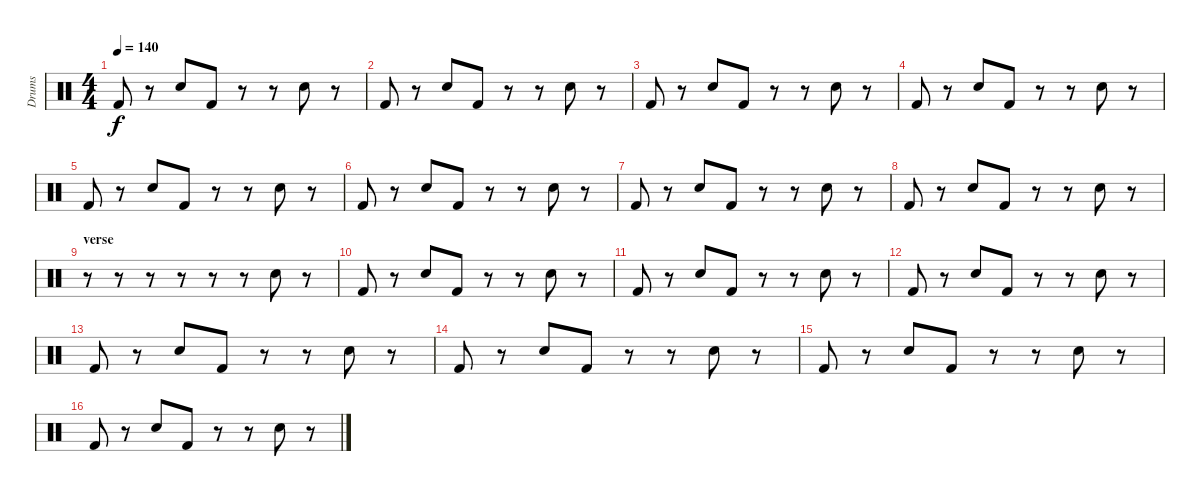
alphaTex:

\track ("Drums" "Drums") {instrument percussion}
\staff {score}
\articulation defaults
\ts (4 4)
\tempo 140
\clef neutral
\ks c "Kick (hit) 2".8{dy f}
r.8 "Electric Snare (hit)".8 "Kick (hit) 2".8 r.8 r.8 "Electric Snare (hit)".8 r.8 |
"Kick (hit) 2".8 r.8 "Electric Snare (hit)".8 "Kick (hit) 2".8 r.8 r.8 "Electric Snare (hit)".8 r.8 |
"Kick (hit) 2".8 r.8 "Electric Snare (hit)".8 "Kick (hit) 2".8 r.8 r.8 "Electric Snare (hit)".8 r.8 |
"Kick (hit) 2".8 r.8 "Electric Snare (hit)".8 "Kick (hit) 2".8 r.8 r.8 "Electric Snare (hit)".8 r.8 |
"Kick (hit) 2".8 r.8 "Electric Snare (hit)".8 "Kick (hit) 2".8 r.8 r.8 "Electric Snare (hit)".8 r.8 |
"Kick (hit) 2".8 r.8 "Electric Snare (hit)".8 "Kick (hit) 2".8 r.8 r.8 "Electric Snare (hit)".8 r.8 |
"Kick (hit) 2".8 r.8 "Electric Snare (hit)".8 "Kick (hit) 2".8 r.8 r.8 "Electric Snare (hit)".8 r.8 |
"Kick (hit) 2".8 r.8 "Electric Snare (hit)".8 "Kick (hit) 2".8 r.8 r.8 "Electric Snare (hit)".8 r.8 |
\section ("" "verse")
r.8 r.8 r.8 r.8 r.8 r.8 "Electric Snare (hit)".8 r.8 |
"Kick (hit) 2".8 r.8 "Electric Snare (hit)".8 "Kick (hit) 2".8 r.8 r.8 "Electric Snare (hit)".8 r.8 |
"Kick (hit) 2".8 r.8 "Electric Snare (hit)".8 "Kick (hit) 2".8 r.8 r.8 "Electric Snare (hit)".8 r.8 |
"Kick (hit) 2".8 r.8 "Electric Snare (hit)".8 "Kick (hit) 2".8 r.8 r.8 "Electric Snare (hit)".8 r.8 |
"Kick (hit) 2".8 r.8 "Electric Snare (hit)".8 "Kick (hit) 2".8 r.8 r.8 "Electric Snare (hit)".8 r.8 |
"Kick (hit) 2".8 r.8 "Electric Snare (hit)".8 "Kick (hit) 2".8 r.8 r.8 "Electric Snare (hit)".8 r.8 |
"Kick (hit) 2".8 r.8 "Electric Snare (hit)".8 "Kick (hit) 2".8 r.8 r.8 "Electric Snare (hit)".8 r.8 |
"Kick (hit) 2".8 r.8 "Electric Snare (hit)".8 "Kick (hit) 2".8 r.8 r.8 "Electric Snare (hit)".8 r.8
